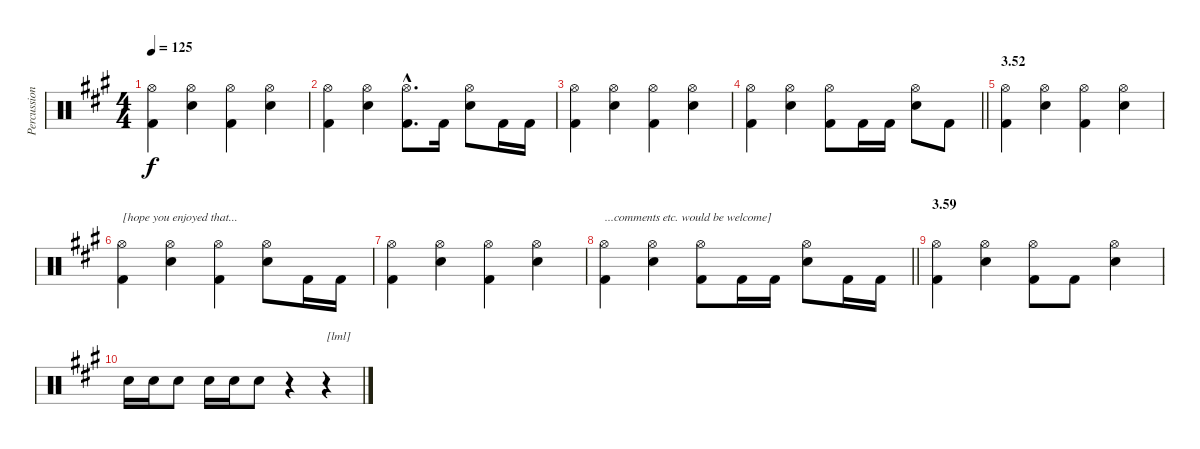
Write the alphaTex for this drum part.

\track ("Percussion" "Percussion") {instrument percussion}
\staff {score}
\articulation defaults
\ts (4 4)
\tempo 125
\clef neutral
\ks f#minor
("Hi-Hat (open)" "Kick (hit) 2").4{dy f} ("Hi-Hat (open)" "Electric Snare (hit)").4 ("Hi-Hat (open)" "Kick (hit) 2").4 ("Hi-Hat (open)" "Electric Snare (hit)").4 |
("Hi-Hat (open)" "Kick (hit) 2").4 ("Hi-Hat (open)" "Electric Snare (hit)").4 ("Hi-Hat (open)"{hac} "Kick (hit) 2"{hac}).8{d} "Kick (hit) 2".16 ("Hi-Hat (open)" "Electric Snare (hit)").8 "Kick (hit) 2".16 "Kick (hit) 2".16 |
("Hi-Hat (open)" "Kick (hit) 2").4 ("Hi-Hat (open)" "Electric Snare (hit)").4 ("Hi-Hat (open)" "Kick (hit) 2").4 ("Hi-Hat (open)" "Electric Snare (hit)").4 |
\barLineRight lightlight
("Hi-Hat (open)" "Kick (hit) 2").4 ("Hi-Hat (open)" "Electric Snare (hit)").4 ("Hi-Hat (open)" "Kick (hit) 2").8 "Kick (hit) 2".16 "Kick (hit) 2".16 ("Hi-Hat (open)" "Electric Snare (hit)").8 "Kick (hit) 2".8 |
\section ("" "3.52")
("Hi-Hat (open)" "Kick (hit) 2").4 ("Hi-Hat (open)" "Electric Snare (hit)").4 ("Hi-Hat (open)" "Kick (hit) 2").4 ("Hi-Hat (open)" "Electric Snare (hit)").4 |
("Hi-Hat (open)" "Kick (hit) 2").4{txt "[hope you enjoyed that..."} ("Hi-Hat (open)" "Electric Snare (hit)").4 ("Hi-Hat (open)" "Kick (hit) 2").4 ("Hi-Hat (open)" "Electric Snare (hit)").8 "Kick (hit) 2".16 "Kick (hit) 2".16 |
("Hi-Hat (open)" "Kick (hit) 2").4 ("Hi-Hat (open)" "Electric Snare (hit)").4 ("Hi-Hat (open)" "Kick (hit) 2").4 ("Hi-Hat (open)" "Electric Snare (hit)").4 |
\barLineRight lightlight
("Hi-Hat (open)" "Kick (hit) 2").4{txt "...comments etc. would be welcome]"} ("Hi-Hat (open)" "Electric Snare (hit)").4 ("Hi-Hat (open)" "Kick (hit) 2").8 "Kick (hit) 2".16 "Kick (hit) 2".16 ("Hi-Hat (open)" "Electric Snare (hit)").8 "Kick (hit) 2".16 "Kick (hit) 2".16 |
\section ("" "3.59")
("Hi-Hat (open)" "Kick (hit) 2").4 ("Hi-Hat (open)" "Electric Snare (hit)").4 ("Hi-Hat (open)" "Kick (hit) 2").8 "Kick (hit) 2".8 ("Hi-Hat (open)" "Electric Snare (hit)").4 |
"Electric Snare (hit)".16 "Electric Snare (hit)".16 "Electric Snare (hit)".8 "Electric Snare (hit)".16 "Electric Snare (hit)".16 "Electric Snare (hit)".8 r.4 r.4{txt "[lml]"}
